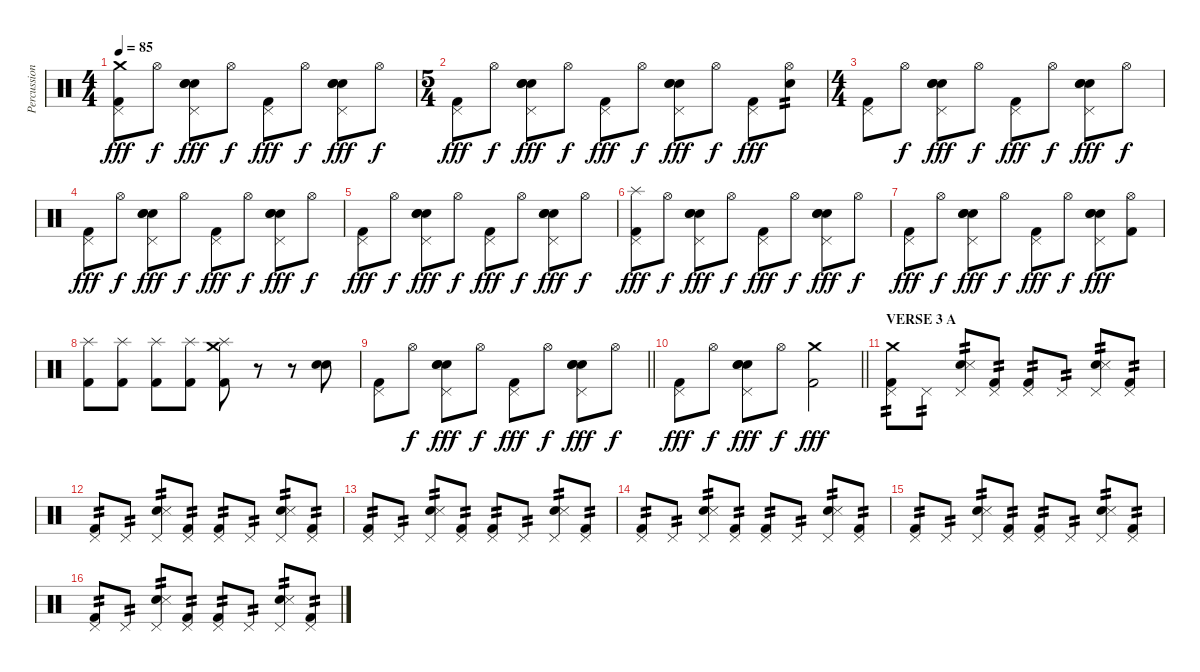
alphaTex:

\track ("Percussion" "Percussion") {instrument percussion}
\staff {score}
\articulation defaults
\ts (4 4)
\tempo 85
\clef neutral
\ks c
("Crash medium (hit)" "Pedal Hi-Hat (hit)" "Kick (hit) 2").8{dy fff} "Hi-Hat (open)".8{dy f} ("Pedal Hi-Hat (hit)" "Hand Clap (hit)" "Electric Snare (hit)" "Snare (hit) 2").8{dy fff} "Hi-Hat (open)".8{dy f} ("Pedal Hi-Hat (hit)" "Kick (hit) 2").8{dy fff} "Hi-Hat (open)".8{dy f} ("Pedal Hi-Hat (hit)" "Hand Clap (hit)" "Electric Snare (hit)" "Snare (hit) 2").8{dy fff} "Hi-Hat (open)".8{dy f} |
\ts (5 4)
("Pedal Hi-Hat (hit)" "Kick (hit) 2").8{dy fff} "Hi-Hat (open)".8{dy f} ("Pedal Hi-Hat (hit)" "Hand Clap (hit)" "Electric Snare (hit)" "Snare (hit) 2").8{dy fff} "Hi-Hat (open)".8{dy f} ("Pedal Hi-Hat (hit)" "Kick (hit) 2").8{dy fff} "Hi-Hat (open)".8{dy f} ("Pedal Hi-Hat (hit)" "Hand Clap (hit)" "Electric Snare (hit)" "Snare (hit) 2").8{dy fff} "Hi-Hat (open)".8{dy f} ("Pedal Hi-Hat (hit)" "Kick (hit) 2").8{dy fff} ("Hi-Hat (open)" "Electric Snare (hit)").8{tp 2} |
\ts (4 4)
("Pedal Hi-Hat (hit)" "Kick (hit) 2").8 "Hi-Hat (open)".8{dy f} ("Pedal Hi-Hat (hit)" "Hand Clap (hit)" "Electric Snare (hit)" "Snare (hit) 2").8{dy fff} "Hi-Hat (open)".8{dy f} ("Pedal Hi-Hat (hit)" "Kick (hit) 2").8{dy fff} "Hi-Hat (open)".8{dy f} ("Pedal Hi-Hat (hit)" "Hand Clap (hit)" "Electric Snare (hit)" "Snare (hit) 2").8{dy fff} "Hi-Hat (open)".8{dy f} |
("Pedal Hi-Hat (hit)" "Kick (hit) 2").8{dy fff} "Hi-Hat (open)".8{dy f} ("Pedal Hi-Hat (hit)" "Hand Clap (hit)" "Electric Snare (hit)" "Snare (hit) 2").8{dy fff} "Hi-Hat (open)".8{dy f} ("Pedal Hi-Hat (hit)" "Kick (hit) 2").8{dy fff} "Hi-Hat (open)".8{dy f} ("Pedal Hi-Hat (hit)" "Hand Clap (hit)" "Electric Snare (hit)" "Snare (hit) 2").8{dy fff} "Hi-Hat (open)".8{dy f} |
("Pedal Hi-Hat (hit)" "Kick (hit) 2").8{dy fff} "Hi-Hat (open)".8{dy f} ("Pedal Hi-Hat (hit)" "Hand Clap (hit)" "Electric Snare (hit)" "Snare (hit) 2").8{dy fff} "Hi-Hat (open)".8{dy f} ("Pedal Hi-Hat (hit)" "Kick (hit) 2").8{dy fff} "Hi-Hat (open)".8{dy f} ("Pedal Hi-Hat (hit)" "Hand Clap (hit)" "Electric Snare (hit)" "Snare (hit) 2").8{dy fff} "Hi-Hat (open)".8{dy f} |
("Splash (hit)" "Pedal Hi-Hat (hit)" "Kick (hit) 2").8{dy fff} "Hi-Hat (open)".8{dy f} ("Pedal Hi-Hat (hit)" "Hand Clap (hit)" "Electric Snare (hit)" "Snare (hit) 2").8{dy fff} "Hi-Hat (open)".8{dy f} ("Pedal Hi-Hat (hit)" "Kick (hit) 2").8{dy fff} "Hi-Hat (open)".8{dy f} ("Pedal Hi-Hat (hit)" "Hand Clap (hit)" "Electric Snare (hit)" "Snare (hit) 2").8{dy fff} "Hi-Hat (open)".8{dy f} |
("Pedal Hi-Hat (hit)" "Kick (hit) 2").8{dy fff} "Hi-Hat (open)".8{dy f} ("Pedal Hi-Hat (hit)" "Hand Clap (hit)" "Electric Snare (hit)" "Snare (hit) 2").8{dy fff} "Hi-Hat (open)".8{dy f} ("Pedal Hi-Hat (hit)" "Kick (hit) 2").8{dy fff} "Hi-Hat (open)".8{dy f} ("Pedal Hi-Hat (hit)" "Hand Clap (hit)" "Electric Snare (hit)" "Snare (hit) 2").8{dy fff} ("Hi-Hat (open)" "Kick (hit) 2").8 |
("Splash (hit)" "Kick (hit) 2").8 ("Splash (hit)" "Kick (hit) 2").8 ("Splash (hit)" "Kick (hit) 2").8 ("Splash (hit)" "Kick (hit) 2").8 ("Crash medium (hit)" "Splash (hit)" "Kick (hit) 2").8 r.8 r.8 ("Hand Clap (hit)" "Electric Snare (hit)").8 |
\barLineRight lightlight
("Pedal Hi-Hat (hit)" "Kick (hit) 2").8 "Hi-Hat (open)".8{dy f} ("Pedal Hi-Hat (hit)" "Hand Clap (hit)" "Electric Snare (hit)" "Snare (hit) 2").8{dy fff} "Hi-Hat (open)".8{dy f} ("Pedal Hi-Hat (hit)" "Kick (hit) 2").8{dy fff} "Hi-Hat (open)".8{dy f} ("Pedal Hi-Hat (hit)" "Hand Clap (hit)" "Electric Snare (hit)" "Snare (hit) 2").8{dy fff} "Hi-Hat (open)".8{dy f} |
\section ("" "")
\barLineRight lightlight
("Pedal Hi-Hat (hit)" "Kick (hit) 2").8{dy fff} "Hi-Hat (open)".8{dy f} ("Pedal Hi-Hat (hit)" "Hand Clap (hit)" "Electric Snare (hit)" "Snare (hit) 2").8{dy fff} "Hi-Hat (open)".8{dy f} ("Crash medium (hit)" "Kick (hit) 2").2{dy fff} |
\section ("" "VERSE 3 A")
("Pedal Hi-Hat (hit)" "Crash medium (hit)" "Kick (hit) 2").8{tp 2} "Pedal Hi-Hat (hit)".8{tp 2} ("Pedal Hi-Hat (hit)" "Electric Snare (hit)" "Snare (side stick) 3").8{tp 2} ("Pedal Hi-Hat (hit)" "Kick (hit) 2").8{tp 2} ("Pedal Hi-Hat (hit)" "Kick (hit) 2").8{tp 2} "Pedal Hi-Hat (hit)".8{tp 2} ("Pedal Hi-Hat (hit)" "Electric Snare (hit)" "Snare (side stick) 3").8{tp 2} ("Pedal Hi-Hat (hit)" "Kick (hit) 2").8{tp 2} |
("Pedal Hi-Hat (hit)" "Kick (hit) 2").8{tp 2} "Pedal Hi-Hat (hit)".8{tp 2} ("Pedal Hi-Hat (hit)" "Electric Snare (hit)" "Snare (side stick) 3").8{tp 2} ("Pedal Hi-Hat (hit)" "Kick (hit) 2").8{tp 2} ("Pedal Hi-Hat (hit)" "Kick (hit) 2").8{tp 2} "Pedal Hi-Hat (hit)".8{tp 2} ("Pedal Hi-Hat (hit)" "Electric Snare (hit)" "Snare (side stick) 3").8{tp 2} ("Pedal Hi-Hat (hit)" "Kick (hit) 2").8{tp 2} |
("Pedal Hi-Hat (hit)" "Kick (hit) 2").8{tp 2} "Pedal Hi-Hat (hit)".8{tp 2} ("Pedal Hi-Hat (hit)" "Electric Snare (hit)" "Snare (side stick) 3").8{tp 2} ("Pedal Hi-Hat (hit)" "Kick (hit) 2").8{tp 2} ("Pedal Hi-Hat (hit)" "Kick (hit) 2").8{tp 2} "Pedal Hi-Hat (hit)".8{tp 2} ("Pedal Hi-Hat (hit)" "Electric Snare (hit)" "Snare (side stick) 3").8{tp 2} ("Pedal Hi-Hat (hit)" "Kick (hit) 2").8{tp 2} |
("Pedal Hi-Hat (hit)" "Kick (hit) 2").8{tp 2} "Pedal Hi-Hat (hit)".8{tp 2} ("Pedal Hi-Hat (hit)" "Electric Snare (hit)" "Snare (side stick) 3").8{tp 2} ("Pedal Hi-Hat (hit)" "Kick (hit) 2").8{tp 2} ("Pedal Hi-Hat (hit)" "Kick (hit) 2").8{tp 2} "Pedal Hi-Hat (hit)".8{tp 2} ("Pedal Hi-Hat (hit)" "Electric Snare (hit)" "Snare (side stick) 3").8{tp 2} ("Pedal Hi-Hat (hit)" "Kick (hit) 2").8{tp 2} |
("Pedal Hi-Hat (hit)" "Kick (hit) 2").8{tp 2} "Pedal Hi-Hat (hit)".8{tp 2} ("Pedal Hi-Hat (hit)" "Electric Snare (hit)" "Snare (side stick) 3").8{tp 2} ("Pedal Hi-Hat (hit)" "Kick (hit) 2").8{tp 2} ("Pedal Hi-Hat (hit)" "Kick (hit) 2").8{tp 2} "Pedal Hi-Hat (hit)".8{tp 2} ("Pedal Hi-Hat (hit)" "Electric Snare (hit)" "Snare (side stick) 3").8{tp 2} ("Pedal Hi-Hat (hit)" "Kick (hit) 2").8{tp 2} |
("Pedal Hi-Hat (hit)" "Kick (hit) 2").8{tp 2} "Pedal Hi-Hat (hit)".8{tp 2} ("Pedal Hi-Hat (hit)" "Electric Snare (hit)" "Snare (side stick) 3").8{tp 2} ("Pedal Hi-Hat (hit)" "Kick (hit) 2").8{tp 2} ("Pedal Hi-Hat (hit)" "Kick (hit) 2").8{tp 2} "Pedal Hi-Hat (hit)".8{tp 2} ("Pedal Hi-Hat (hit)" "Electric Snare (hit)" "Snare (side stick) 3").8{tp 2} ("Pedal Hi-Hat (hit)" "Kick (hit) 2").8{tp 2}
